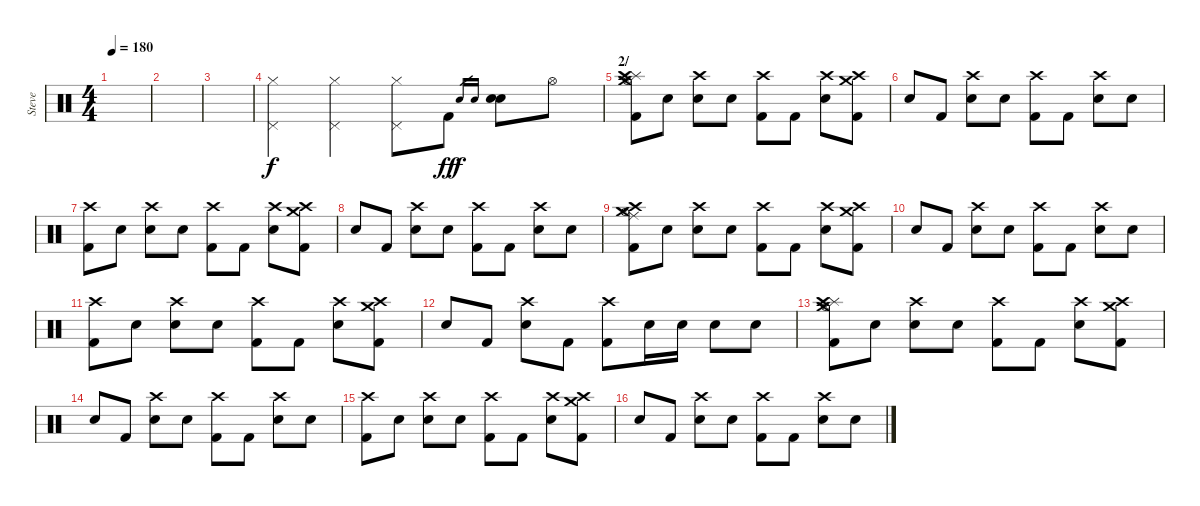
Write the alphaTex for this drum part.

\track ("Steve" "Steve") {instrument percussion}
\staff {score}
\articulation defaults
\ts (4 4)
\tempo 180
\clef neutral
\ks c
|
|
|
("Pedal Hi-Hat (hit)" "Hi-Hat (closed)").4 ("Pedal Hi-Hat (hit)" "Hi-Hat (closed)").4 ("Pedal Hi-Hat (hit)" "Hi-Hat (closed)").8 "Kick (hit) 2".8{dy ff} "Electric Snare (hit)".16{gr dy f} "Electric Snare (hit)".16{gr} ("Electric Snare (hit)" "Electric Snare (hit)").8 "Hi-Hat (open)".8 |
\section ("" "2/")
("Splash (hit)" "Hi-Hat (open)" "Crash medium (hit)" "Crash high (hit)" "Kick (hit) 2").8 "Snare (hit)"{x}.8 ("Crash high (hit)" "Electric Snare (hit)").8 "Snare (hit)"{x}.8 ("Crash high (hit)" "Kick (hit) 2").8 "Kick (hit) 2".8 ("Crash high (hit)" "Electric Snare (hit)").8 ("Crash high (hit)" "Crash medium (hit)" "Kick (hit) 2").8 |
"Snare (hit)"{x}.8 "Kick (hit) 2".8 ("Crash high (hit)" "Electric Snare (hit)").8 "Snare (hit)"{x}.8 ("Crash high (hit)" "Kick (hit) 2").8 "Kick (hit) 2".8 ("Crash high (hit)" "Electric Snare (hit)").8 "Snare (hit)"{x}.8 |
("Crash high (hit)" "Kick (hit) 2").8 "Snare (hit)"{x}.8 ("Crash high (hit)" "Electric Snare (hit)").8 "Snare (hit)"{x}.8 ("Crash high (hit)" "Kick (hit) 2").8 "Kick (hit) 2".8 ("Crash high (hit)" "Electric Snare (hit)").8 ("Crash high (hit)" "Crash medium (hit)" "Kick (hit) 2").8 |
"Snare (hit)"{x}.8 "Kick (hit) 2".8 ("Crash high (hit)" "Electric Snare (hit)").8 "Snare (hit)"{x}.8 ("Crash high (hit)" "Kick (hit) 2").8 "Kick (hit) 2".8 ("Crash high (hit)" "Electric Snare (hit)").8 "Electric Snare (hit)".8 |
("Ride (middle)" "Hi-Hat (open)" "Crash medium (hit)" "Crash high (hit)" "Kick (hit) 2").8 "Snare (hit)"{x}.8 ("Crash high (hit)" "Electric Snare (hit)").8 "Snare (hit)"{x}.8 ("Crash high (hit)" "Kick (hit) 2").8 "Kick (hit) 2".8 ("Crash high (hit)" "Electric Snare (hit)").8 ("Crash high (hit)" "Crash medium (hit)" "Kick (hit) 2").8 |
"Snare (hit)"{x}.8 "Kick (hit) 2".8 ("Crash high (hit)" "Electric Snare (hit)").8 "Snare (hit)"{x}.8 ("Crash high (hit)" "Kick (hit) 2").8 "Kick (hit) 2".8 ("Crash high (hit)" "Electric Snare (hit)").8 "Snare (hit)"{x}.8 |
("Crash high (hit)" "Kick (hit) 2").8 "Snare (hit)"{x}.8 ("Crash high (hit)" "Electric Snare (hit)").8 "Snare (hit)"{x}.8 ("Crash high (hit)" "Kick (hit) 2").8 "Kick (hit) 2".8 ("Crash high (hit)" "Electric Snare (hit)").8 ("Crash high (hit)" "Crash medium (hit)" "Kick (hit) 2").8 |
"Snare (hit)"{x}.8 "Kick (hit) 2".8 ("Crash high (hit)" "Electric Snare (hit)").8 "Kick (hit) 2".8 ("Crash high (hit)" "Kick (hit) 2").8 "Electric Snare (hit)".16 "Electric Snare (hit)".16 "Electric Snare (hit)".8 "Electric Snare (hit)".8 |
("Splash (hit)" "Hi-Hat (open)" "Crash medium (hit)" "Crash high (hit)" "Kick (hit) 2").8 "Snare (hit)"{x}.8 ("Crash high (hit)" "Electric Snare (hit)").8 "Snare (hit)"{x}.8 ("Crash high (hit)" "Kick (hit) 2").8 "Kick (hit) 2".8 ("Crash high (hit)" "Electric Snare (hit)").8 ("Crash high (hit)" "Crash medium (hit)" "Kick (hit) 2").8 |
"Snare (hit)"{x}.8 "Kick (hit) 2".8 ("Crash high (hit)" "Electric Snare (hit)").8 "Snare (hit)"{x}.8 ("Crash high (hit)" "Kick (hit) 2").8 "Kick (hit) 2".8 ("Crash high (hit)" "Electric Snare (hit)").8 "Snare (hit)"{x}.8 |
("Crash high (hit)" "Kick (hit) 2").8 "Snare (hit)"{x}.8 ("Crash high (hit)" "Electric Snare (hit)").8 "Snare (hit)"{x}.8 ("Crash high (hit)" "Kick (hit) 2").8 "Kick (hit) 2".8 ("Crash high (hit)" "Electric Snare (hit)").8 ("Crash high (hit)" "Crash medium (hit)" "Kick (hit) 2").8 |
"Snare (hit)"{x}.8 "Kick (hit) 2".8 ("Crash high (hit)" "Electric Snare (hit)").8 "Snare (hit)"{x}.8 ("Crash high (hit)" "Kick (hit) 2").8 "Kick (hit) 2".8 ("Crash high (hit)" "Electric Snare (hit)").8 "Snare (hit)"{x}.8
